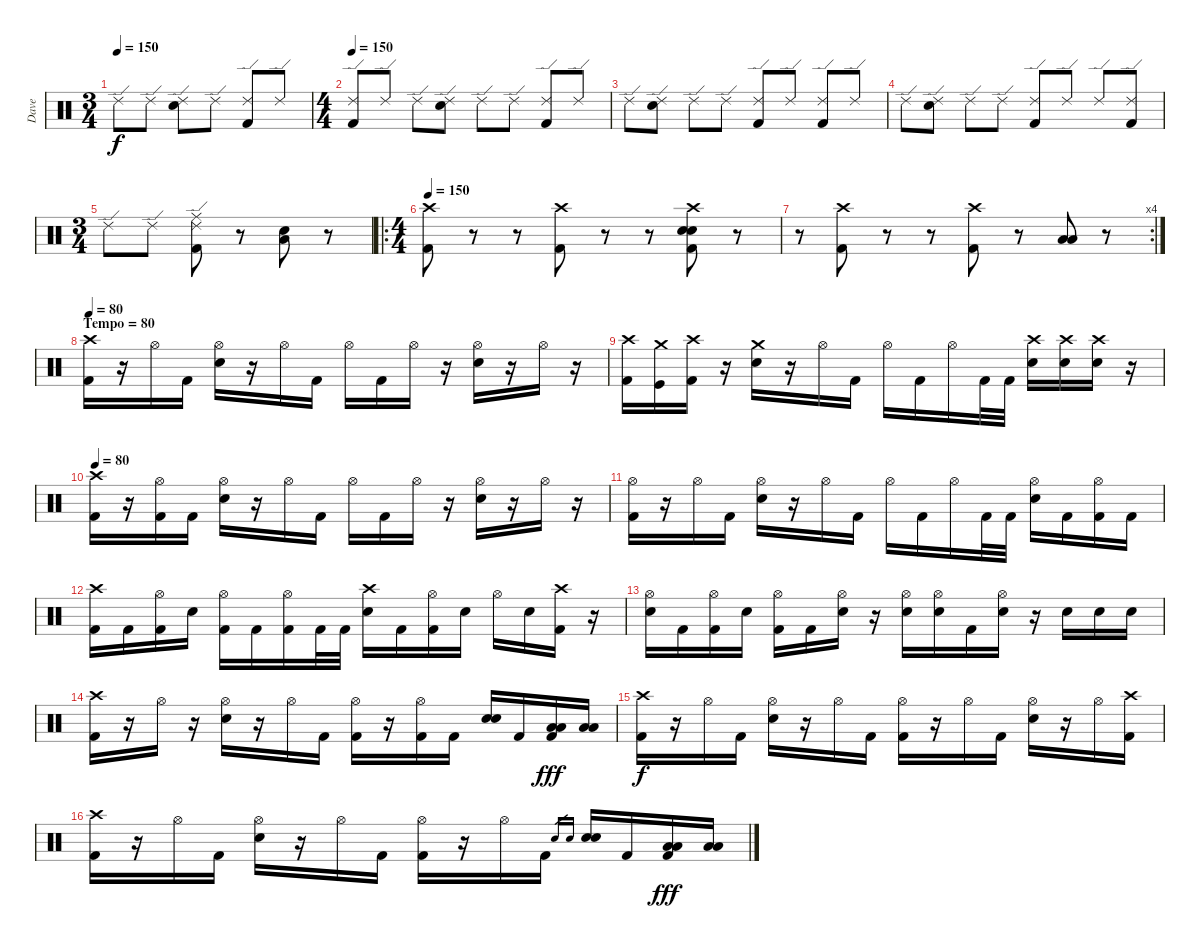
\track ("Dave" "Dave") {instrument percussion}
\staff {score}
\articulation defaults
\ts (3 4)
\tempo 150
\clef neutral
\ks c "Ride (edge) 2".8{dy f} "Ride (edge) 2".8
("Ride (edge) 2" "Electric Snare (hit)").8 "Ride (edge) 2".8 ("Ride (edge) 2" "Kick (hit) 2").8 "Ride (edge) 2".8 |
\ts (4 4)
\tempo 150
("Ride (edge) 2" "Kick (hit) 2").8 "Ride (edge) 2".8 "Ride (edge) 2".8 ("Ride (edge) 2" "Electric Snare (hit)").8 "Ride (edge) 2".8 "Ride (edge) 2".8 ("Ride (edge) 2" "Kick (hit) 2").8 "Ride (edge) 2".8 |
"Ride (edge) 2".8 ("Ride (edge) 2" "Electric Snare (hit)").8 "Ride (edge) 2".8 "Ride (edge) 2".8 ("Ride (edge) 2" "Kick (hit) 2").8 "Ride (edge) 2".8 ("Ride (edge) 2" "Kick (hit) 2").8 "Ride (edge) 2".8 |
"Ride (edge) 2".8 ("Ride (edge) 2" "Electric Snare (hit)").8 "Ride (edge) 2".8 "Ride (edge) 2".8 ("Ride (edge) 2" "Kick (hit) 2").8 "Ride (edge) 2".8 "Ride (edge) 2".8 ("Ride (edge) 2" "Kick (hit) 2").8 |
\ts (3 4)
"Ride (edge) 2".8 "Ride (edge) 2".8 ("Ride (edge) 2" "Ride (middle)" "Kick (hit) 2").8 r.8 ("Electric Snare (hit)" "Low Floor Tom (hit)").8 r.8 |
\ro
\ts (4 4)
\tempo 150
("Crash high (hit)" "Kick (hit) 2").8 r.8 r.8 ("Crash high (hit)" "Kick (hit) 2").8 r.8 r.8 ("Crash high (hit)" "Electric Snare (hit)" "Electric Snare (hit)" "Kick (hit) 2").8 r.8 |
\rc 4
r.8 ("Crash high (hit)" "Kick (hit) 2").8 r.8 r.8 ("Crash high (hit)" "Kick (hit) 2").8 r.8 ("Low Tom (hit)" "Low Floor Tom (hit)").8 r.8 |
\section ("" "Tempo = 80")
\tempo 80
("Crash high (hit)" "Kick (hit) 2").16 r.16 "Hi-Hat (open)".16 "Kick (hit) 2".16 ("Hi-Hat (open)" "Electric Snare (hit)").16 r.16 "Hi-Hat (open)".16 "Kick (hit) 2".16 "Hi-Hat (open)".16 "Kick (hit) 2".16 "Hi-Hat (open)".16 r.16 ("Hi-Hat (open)" "Electric Snare (hit)").16 r.16 "Hi-Hat (open)".16 r.16 |
("Crash high (hit)" "Kick (hit) 2").16 ("Crash medium (hit)" "Kick (hit)").16 ("Crash high (hit)" "Kick (hit) 2").16 r.16 ("Crash medium (hit)" "Electric Snare (hit)").16 r.16 "Hi-Hat (open)".16 "Kick (hit) 2".16 "Hi-Hat (open)".16 "Kick (hit) 2".16 "Hi-Hat (open)".16 "Kick (hit) 2".32 "Kick (hit) 2".32 ("Crash high (hit)" "Electric Snare (hit)").16 ("Crash high (hit)" "Electric Snare (hit)").16 ("Crash high (hit)" "Electric Snare (hit)").16 r.16 |
\tempo 80
("Crash high (hit)" "Kick (hit) 2").16 r.16 ("Hi-Hat (open)" "Kick (hit) 2").16 "Kick (hit) 2".16 ("Hi-Hat (open)" "Electric Snare (hit)").16 r.16 "Hi-Hat (open)".16 "Kick (hit) 2".16 "Hi-Hat (open)".16 "Kick (hit) 2".16 "Hi-Hat (open)".16 r.16 ("Hi-Hat (open)" "Electric Snare (hit)").16 r.16 "Hi-Hat (open)".16 r.16 |
("Hi-Hat (open)" "Kick (hit) 2").16 r.16 "Hi-Hat (open)".16 "Kick (hit) 2".16 ("Hi-Hat (open)" "Electric Snare (hit)").16 r.16 "Hi-Hat (open)".16 "Kick (hit) 2".16 "Hi-Hat (open)".16 "Kick (hit) 2".16 "Hi-Hat (open)".16 "Kick (hit) 2".32 "Kick (hit) 2".32 ("Hi-Hat (open)" "Electric Snare (hit)").16 "Kick (hit) 2".16 ("Hi-Hat (open)" "Kick (hit) 2").16 "Kick (hit) 2".16 |
("Crash high (hit)" "Kick (hit) 2").16 "Kick (hit) 2".16 ("Hi-Hat (open)" "Kick (hit) 2").16 "Electric Snare (hit)".16 ("Hi-Hat (open)" "Kick (hit) 2").16 "Kick (hit) 2".16 ("Hi-Hat (open)" "Kick (hit) 2").16 "Kick (hit) 2".32 "Kick (hit) 2".32 ("Crash high (hit)" "Electric Snare (hit)").16 "Kick (hit) 2".16 ("Hi-Hat (open)" "Kick (hit) 2").16 "Electric Snare (hit)".16 "Hi-Hat (open)".16 "Electric Snare (hit)".16 ("Crash high (hit)" "Kick (hit) 2").16 r.16 |
("Hi-Hat (open)" "Electric Snare (hit)").16 "Kick (hit) 2".16 ("Hi-Hat (open)" "Kick (hit) 2").16 "Electric Snare (hit)".16 ("Hi-Hat (open)" "Kick (hit) 2").16 "Kick (hit) 2".16 ("Hi-Hat (open)" "Electric Snare (hit)").16 r.16 ("Hi-Hat (open)" "Electric Snare (hit)").16 ("Hi-Hat (open)" "Electric Snare (hit)").16 "Kick (hit) 2".16 ("Hi-Hat (open)" "Electric Snare (hit)").16 r.16 "Electric Snare (hit)".16 "Electric Snare (hit)".16 "Electric Snare (hit)".16 |
("Crash high (hit)" "Kick (hit) 2").16 r.16 "Hi-Hat (open)".16 r.16 ("Hi-Hat (open)" "Electric Snare (hit)").16 r.16 "Hi-Hat (open)".16 "Kick (hit) 2".16 ("Hi-Hat (open)" "Kick (hit) 2").16 r.16 ("Hi-Hat (open)" "Kick (hit) 2").16 "Kick (hit) 2".16 ("Electric Snare (hit)" "Electric Snare (hit)").16 "Kick (hit) 2".16 ("Low Tom (hit)" "Low Floor Tom (hit)" "Kick (hit) 2").16{dy fff} ("Low Tom (hit)" "Low Floor Tom (hit)").16 |
("Crash high (hit)" "Kick (hit) 2").16{dy f} r.16 "Hi-Hat (open)".16 "Kick (hit) 2".16 ("Hi-Hat (open)" "Electric Snare (hit)").16 r.16 "Hi-Hat (open)".16 "Kick (hit) 2".16 ("Hi-Hat (open)" "Kick (hit) 2").16 r.16 "Hi-Hat (open)".16 "Kick (hit) 2".16 ("Hi-Hat (open)" "Electric Snare (hit)").16 r.16 "Hi-Hat (open)".16 ("Crash high (hit)" "Kick (hit) 2").16 |
("Crash high (hit)" "Kick (hit) 2").16 r.16 "Hi-Hat (open)".16 "Kick (hit) 2".16 ("Hi-Hat (open)" "Electric Snare (hit)").16 r.16 "Hi-Hat (open)".16 "Kick (hit) 2".16 ("Hi-Hat (open)" "Kick (hit) 2").16 r.16 "Hi-Hat (open)".16 "Kick (hit) 2".16 "Electric Snare (hit)".16{gr} "Electric Snare (hit)".16{gr} ("Electric Snare (hit)" "Electric Snare (hit)").16 "Kick (hit) 2".16 ("Low Tom (hit)" "Low Floor Tom (hit)" "Kick (hit) 2").16{dy fff} ("Low Tom (hit)" "Low Floor Tom (hit)").16
